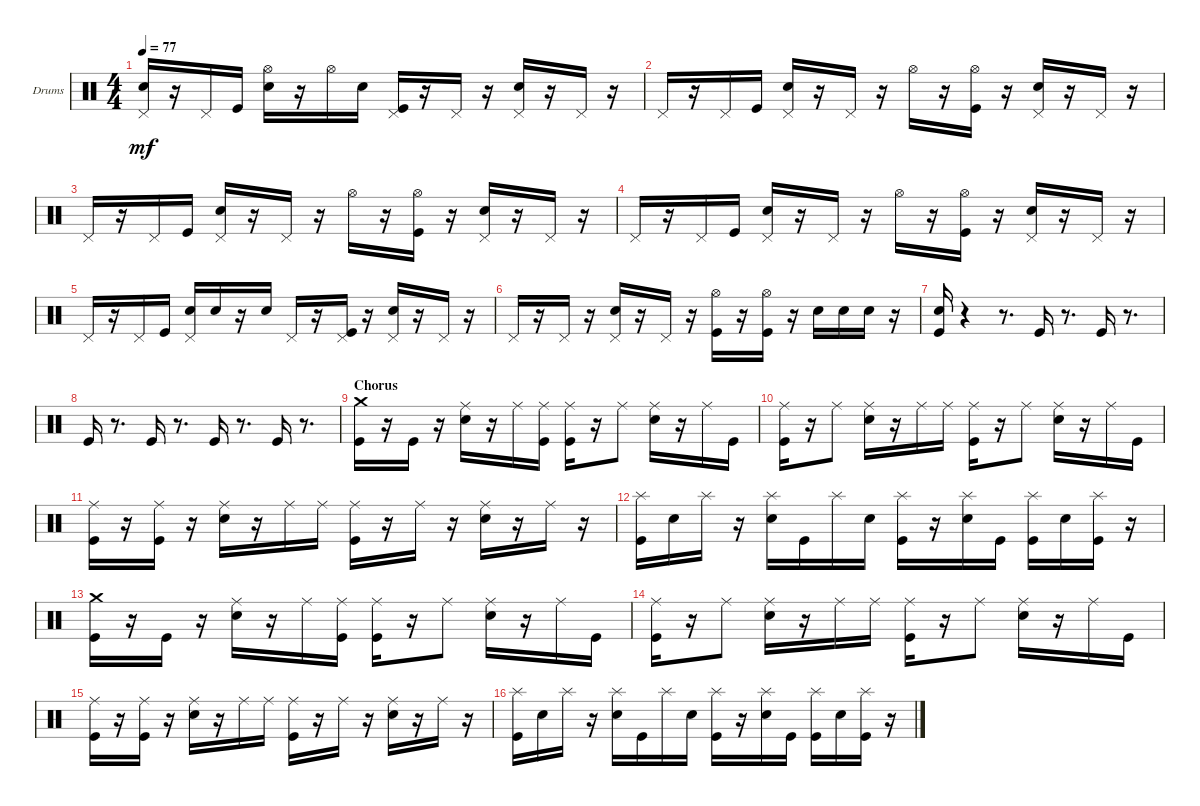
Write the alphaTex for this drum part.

\bracketExtendMode groupsimilarinstruments
\firstSystemTrackNameOrientation horizontal
\otherSystemsTrackNameOrientation horizontal
\track ("Drums" "Drums") {instrument percussion}
\staff {score}
\articulation defaults
\ts (4 4)
\tempo 77
\clef neutral
\ks c
("Snare (hit) 2" "Pedal Hi-Hat (hit)").16{dy mf} r.16 "Pedal Hi-Hat (hit)".16 "Kick (hit)".16 ("Snare (hit) 2" "Hi-Hat (open)").16 r.16 "Hi-Hat (open)".16 "Snare (hit) 2".16 ("Kick (hit)" "Pedal Hi-Hat (hit)").16 r.16 "Pedal Hi-Hat (hit)".16 r.16 ("Snare (hit) 2" "Pedal Hi-Hat (hit)").16 r.16 "Pedal Hi-Hat (hit)".16 r.16 |
"Pedal Hi-Hat (hit)".16 r.16 "Pedal Hi-Hat (hit)".16 "Kick (hit)".16 ("Snare (hit) 2" "Pedal Hi-Hat (hit)").16 r.16 "Pedal Hi-Hat (hit)".16 r.16 "Hi-Hat (open)".16 r.16 ("Hi-Hat (open)" "Kick (hit)").16 r.16 ("Snare (hit) 2" "Pedal Hi-Hat (hit)").16 r.16 "Pedal Hi-Hat (hit)".16 r.16 |
"Pedal Hi-Hat (hit)".16 r.16 "Pedal Hi-Hat (hit)".16 "Kick (hit)".16 ("Snare (hit) 2" "Pedal Hi-Hat (hit)").16 r.16 "Pedal Hi-Hat (hit)".16 r.16 "Hi-Hat (open)".16 r.16 ("Hi-Hat (open)" "Kick (hit)").16 r.16 ("Snare (hit) 2" "Pedal Hi-Hat (hit)").16 r.16 "Pedal Hi-Hat (hit)".16 r.16 |
"Pedal Hi-Hat (hit)".16 r.16 "Pedal Hi-Hat (hit)".16 "Kick (hit)".16 ("Snare (hit) 2" "Pedal Hi-Hat (hit)").16 r.16 "Pedal Hi-Hat (hit)".16 r.16 "Hi-Hat (open)".16 r.16 ("Hi-Hat (open)" "Kick (hit)").16 r.16 ("Snare (hit) 2" "Pedal Hi-Hat (hit)").16 r.16 "Pedal Hi-Hat (hit)".16 r.16 |
"Pedal Hi-Hat (hit)".16 r.16 "Pedal Hi-Hat (hit)".16 "Kick (hit)".16 ("Snare (hit) 2" "Pedal Hi-Hat (hit)").16 "Snare (hit) 2".16 r.16 "Snare (hit) 2".16 "Pedal Hi-Hat (hit)".16 r.16 ("Kick (hit)" "Pedal Hi-Hat (hit)").16 r.16 ("Pedal Hi-Hat (hit)" "Snare (hit) 2").16 r.16 "Pedal Hi-Hat (hit)".16 r.16 |
"Pedal Hi-Hat (hit)".16 r.16 "Pedal Hi-Hat (hit)".16 r.16 ("Snare (hit) 2" "Pedal Hi-Hat (hit)").16 r.16 "Pedal Hi-Hat (hit)".16 r.16 ("Kick (hit)" "Hi-Hat (open)").16 r.16 ("Kick (hit)" "Hi-Hat (open)").16 r.16 "Snare (hit) 2".16 "Snare (hit) 2".16 "Snare (hit) 2".16 r.16 |
("Snare (hit) 2" "Kick (hit)").16 r.4 r.8{d} "Kick (hit)".16 r.8{d} "Kick (hit)".16 r.8{d} |
"Kick (hit)".16 r.8{d} "Kick (hit)".16 r.8{d} "Kick (hit)".16 r.8{d} "Kick (hit)".16 r.8{d} |
\section ("" "Chorus")
("Kick (hit)" "Crash medium (hit)").16 r.16 "Kick (hit)".16 r.16 ("Snare (hit) 2" "Ride (middle)").16 r.16 "Ride (middle)".16 ("Ride (middle)" "Kick (hit)").16 ("Kick (hit)" "Ride (middle)").16 r.16 "Ride (middle)".8 ("Snare (hit) 2" "Ride (middle)").16 r.16 "Ride (middle)".16 "Kick (hit)".16 |
("Kick (hit)" "Ride (middle)").16 r.16 "Ride (middle)".8 ("Ride (middle)" "Snare (hit) 2").16 r.16 "Ride (middle)".16 "Ride (middle)".16 ("Ride (middle)" "Kick (hit)").16 r.16 "Ride (middle)".8 ("Ride (middle)" "Snare (hit) 2").16 r.16 "Ride (middle)".16 "Kick (hit)".16 |
("Ride (middle)" "Kick (hit)").16 r.16 ("Ride (middle)" "Kick (hit)").16 r.16 ("Ride (middle)" "Snare (hit) 2").16 r.16 "Ride (middle)".16 "Ride (middle)".16 ("Ride (middle)" "Kick (hit)").16 r.16 "Ride (middle)".16 r.16 ("Ride (middle)" "Snare (hit) 2").16 r.16 "Ride (middle)".16 r.16 |
("Kick (hit)" "Splash (hit)").16 "Snare (hit) 2".16 "Splash (hit)".16 r.16 ("Snare (hit) 2" "Splash (hit)").16 "Kick (hit)".16 "Splash (hit)".16 "Snare (hit) 2".16 ("Kick (hit)" "Splash (hit)").16 r.16 ("Snare (hit) 2" "Splash (hit)").16 "Kick (hit)".16 ("Kick (hit)" "Splash (hit)").16 "Snare (hit) 2".16 ("Kick (hit)" "Splash (hit)").16 r.16 |
("Crash medium (hit)" "Kick (hit)").16 r.16 "Kick (hit)".16 r.16 ("Ride (middle)" "Snare (hit) 2").16 r.16 "Ride (middle)".16 ("Ride (middle)" "Kick (hit)").16 ("Kick (hit)" "Ride (middle)").16 r.16 "Ride (middle)".8 ("Snare (hit) 2" "Ride (middle)").16 r.16 "Ride (middle)".16 "Kick (hit)".16 |
("Ride (middle)" "Kick (hit)").16 r.16 "Ride (middle)".8 ("Ride (middle)" "Snare (hit) 2").16 r.16 "Ride (middle)".16 "Ride (middle)".16 ("Ride (middle)" "Kick (hit)").16 r.16 "Ride (middle)".8 ("Snare (hit) 2" "Ride (middle)").16 r.16 "Ride (middle)".16 "Kick (hit)".16 |
("Ride (middle)" "Kick (hit)").16 r.16 ("Ride (middle)" "Kick (hit)").16 r.16 ("Ride (middle)" "Snare (hit) 2").16 r.16 "Ride (middle)".16 "Ride (middle)".16 ("Ride (middle)" "Kick (hit)").16 r.16 "Ride (middle)".16 r.16 ("Ride (middle)" "Snare (hit) 2").16 r.16 "Ride (middle)".16 r.16 |
("Kick (hit)" "Splash (hit)").16 "Snare (hit) 2".16 "Splash (hit)".16 r.16 ("Snare (hit) 2" "Splash (hit)").16 "Kick (hit)".16 "Splash (hit)".16 "Snare (hit) 2".16 ("Kick (hit)" "Splash (hit)").16 r.16 ("Snare (hit) 2" "Splash (hit)").16 "Kick (hit)".16 ("Kick (hit)" "Splash (hit)").16 "Snare (hit) 2".16 ("Kick (hit)" "Splash (hit)").16 r.16
